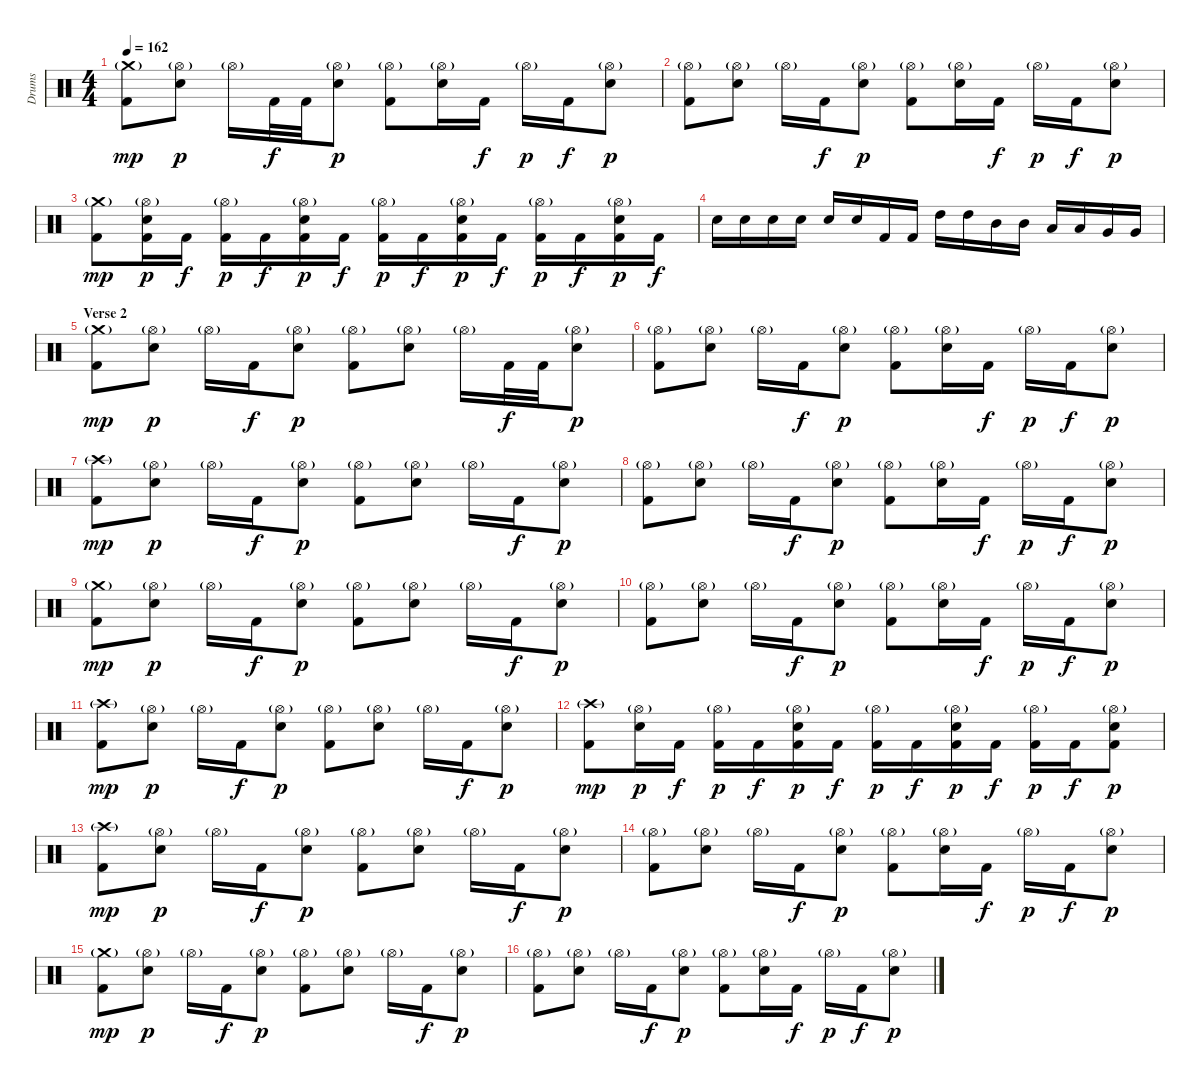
\track ("Drums" "Drums") {instrument percussion}
\staff {score}
\articulation defaults
\ts (4 4)
\tempo 162
\clef neutral
\ks c
("Crash medium (hit)"{g} "Kick (hit) 2").8{dy mp} ("Hi-Hat (open)"{g} "Snare (hit) 2").8{dy p} "Hi-Hat (open)"{g}.16 "Kick (hit) 2".32{dy f} "Kick (hit) 2".32 ("Hi-Hat (open)"{g} "Snare (hit) 2").8{dy p} ("Hi-Hat (open)"{g} "Kick (hit) 2").8 ("Hi-Hat (open)"{g} "Snare (hit) 2").16 "Kick (hit) 2".16{dy f} "Hi-Hat (open)"{g}.16{dy p} "Kick (hit) 2".16{dy f} ("Hi-Hat (open)"{g} "Snare (hit) 2").8{dy p} |
("Hi-Hat (open)"{g} "Kick (hit) 2").8 ("Hi-Hat (open)"{g} "Snare (hit) 2").8 "Hi-Hat (open)"{g}.16 "Kick (hit) 2".16{dy f} ("Hi-Hat (open)"{g} "Snare (hit) 2").8{dy p} ("Hi-Hat (open)"{g} "Kick (hit) 2").8 ("Hi-Hat (open)"{g} "Snare (hit) 2").16 "Kick (hit) 2".16{dy f} "Hi-Hat (open)"{g}.16{dy p} "Kick (hit) 2".16{dy f} ("Hi-Hat (open)"{g} "Snare (hit) 2").8{dy p} |
("Crash medium (hit)"{g} "Kick (hit) 2").8{dy mp} ("Hi-Hat (open)"{g} "Snare (hit) 2" "Kick (hit) 2").16{dy p} "Kick (hit) 2".16{dy f} ("Hi-Hat (open)"{g} "Kick (hit) 2").16{dy p} "Kick (hit) 2".16{dy f} ("Hi-Hat (open)"{g} "Snare (hit) 2" "Kick (hit) 2").16{dy p} "Kick (hit) 2".16{dy f} ("Hi-Hat (open)"{g} "Kick (hit) 2").16{dy p} "Kick (hit) 2".16{dy f} ("Hi-Hat (open)"{g} "Snare (hit) 2" "Kick (hit) 2").16{dy p} "Kick (hit) 2".16{dy f} ("Hi-Hat (open)"{g} "Kick (hit) 2").16{dy p} "Kick (hit) 2".16{dy f} ("Hi-Hat (open)"{g} "Snare (hit) 2" "Kick (hit) 2").16{dy p} "Kick (hit) 2".16{dy f} |
"Snare (hit) 2".16 "Snare (hit) 2".16 "Snare (hit) 2".16 "Snare (hit) 2".16 "Snare (hit) 2".16 "Snare (hit) 2".16 "Kick (hit) 2".16 "Kick (hit) 2".16 "High Tom (hit)".16 "High Tom (hit)".16 "Mid Tom (hit)".16 "Mid Tom (hit)".16 "Low Tom (hit)".16 "Low Tom (hit)".16 "Very Low Tom (hit)".16 "Very Low Tom (hit)".16 |
\section ("" "Verse 2")
("Crash medium (hit)"{g} "Kick (hit) 2").8{dy mp} ("Hi-Hat (open)"{g} "Snare (hit) 2").8{dy p} "Hi-Hat (open)"{g}.16 "Kick (hit) 2".16{dy f} ("Hi-Hat (open)"{g} "Snare (hit) 2").8{dy p} ("Hi-Hat (open)"{g} "Kick (hit) 2").8 ("Hi-Hat (open)"{g} "Snare (hit) 2").8 "Hi-Hat (open)"{g}.16 "Kick (hit) 2".32{dy f} "Kick (hit) 2".32 ("Hi-Hat (open)"{g} "Snare (hit) 2").8{dy p} |
("Hi-Hat (open)"{g} "Kick (hit) 2").8 ("Hi-Hat (open)"{g} "Snare (hit) 2").8 "Hi-Hat (open)"{g}.16 "Kick (hit) 2".16{dy f} ("Hi-Hat (open)"{g} "Snare (hit) 2").8{dy p} ("Hi-Hat (open)"{g} "Kick (hit) 2").8 ("Hi-Hat (open)"{g} "Snare (hit) 2").16 "Kick (hit) 2".16{dy f} "Hi-Hat (open)"{g}.16{dy p} "Kick (hit) 2".16{dy f} ("Hi-Hat (open)"{g} "Snare (hit) 2").8{dy p} |
("Crash high (hit)"{g} "Kick (hit) 2").8{dy mp} ("Hi-Hat (open)"{g} "Snare (hit) 2").8{dy p} "Hi-Hat (open)"{g}.16 "Kick (hit) 2".16{dy f} ("Hi-Hat (open)"{g} "Snare (hit) 2").8{dy p} ("Hi-Hat (open)"{g} "Kick (hit) 2").8 ("Hi-Hat (open)"{g} "Snare (hit) 2").8 "Hi-Hat (open)"{g}.16 "Kick (hit) 2".16{dy f} ("Hi-Hat (open)"{g} "Snare (hit) 2").8{dy p} |
("Hi-Hat (open)"{g} "Kick (hit) 2").8 ("Hi-Hat (open)"{g} "Snare (hit) 2").8 "Hi-Hat (open)"{g}.16 "Kick (hit) 2".16{dy f} ("Hi-Hat (open)"{g} "Snare (hit) 2").8{dy p} ("Hi-Hat (open)"{g} "Kick (hit) 2").8 ("Hi-Hat (open)"{g} "Snare (hit) 2").16 "Kick (hit) 2".16{dy f} "Hi-Hat (open)"{g}.16{dy p} "Kick (hit) 2".16{dy f} ("Hi-Hat (open)"{g} "Snare (hit) 2").8{dy p} |
("Crash medium (hit)"{g} "Kick (hit) 2").8{dy mp} ("Hi-Hat (open)"{g} "Snare (hit) 2").8{dy p} "Hi-Hat (open)"{g}.16 "Kick (hit) 2".16{dy f} ("Hi-Hat (open)"{g} "Snare (hit) 2").8{dy p} ("Hi-Hat (open)"{g} "Kick (hit) 2").8 ("Hi-Hat (open)"{g} "Snare (hit) 2").8 "Hi-Hat (open)"{g}.16 "Kick (hit) 2".16{dy f} ("Hi-Hat (open)"{g} "Snare (hit) 2").8{dy p} |
("Hi-Hat (open)"{g} "Kick (hit) 2").8 ("Hi-Hat (open)"{g} "Snare (hit) 2").8 "Hi-Hat (open)"{g}.16 "Kick (hit) 2".16{dy f} ("Hi-Hat (open)"{g} "Snare (hit) 2").8{dy p} ("Hi-Hat (open)"{g} "Kick (hit) 2").8 ("Hi-Hat (open)"{g} "Snare (hit) 2").16 "Kick (hit) 2".16{dy f} "Hi-Hat (open)"{g}.16{dy p} "Kick (hit) 2".16{dy f} ("Hi-Hat (open)"{g} "Snare (hit) 2").8{dy p} |
("Crash high (hit)"{g} "Kick (hit) 2").8{dy mp} ("Hi-Hat (open)"{g} "Snare (hit) 2").8{dy p} "Hi-Hat (open)"{g}.16 "Kick (hit) 2".16{dy f} ("Hi-Hat (open)"{g} "Snare (hit) 2").8{dy p} ("Hi-Hat (open)"{g} "Kick (hit) 2").8 ("Hi-Hat (open)"{g} "Snare (hit) 2").8 "Hi-Hat (open)"{g}.16 "Kick (hit) 2".16{dy f} ("Hi-Hat (open)"{g} "Snare (hit) 2").8{dy p} |
("Crash high (hit)"{g} "Kick (hit) 2").8{dy mp} ("Hi-Hat (open)"{g} "Snare (hit) 2").16{dy p} "Kick (hit) 2".16{dy f} ("Hi-Hat (open)"{g} "Kick (hit) 2").16{dy p} "Kick (hit) 2".16{dy f} ("Hi-Hat (open)"{g} "Snare (hit) 2" "Kick (hit) 2").16{dy p} "Kick (hit) 2".16{dy f} ("Hi-Hat (open)"{g} "Kick (hit) 2").16{dy p} "Kick (hit) 2".16{dy f} ("Hi-Hat (open)"{g} "Snare (hit) 2" "Kick (hit) 2").16{dy p} "Kick (hit) 2".16{dy f} ("Hi-Hat (open)"{g} "Kick (hit) 2").16{dy p} "Kick (hit) 2".16{dy f} ("Hi-Hat (open)"{g} "Snare (hit) 2" "Kick (hit) 2").8{dy p} |
("Crash high (hit)"{g} "Kick (hit) 2").8{dy mp} ("Hi-Hat (open)"{g} "Snare (hit) 2").8{dy p} "Hi-Hat (open)"{g}.16 "Kick (hit) 2".16{dy f} ("Hi-Hat (open)"{g} "Snare (hit) 2").8{dy p} ("Hi-Hat (open)"{g} "Kick (hit) 2").8 ("Hi-Hat (open)"{g} "Snare (hit) 2").8 "Hi-Hat (open)"{g}.16 "Kick (hit) 2".16{dy f} ("Hi-Hat (open)"{g} "Snare (hit) 2").8{dy p} |
("Hi-Hat (open)"{g} "Kick (hit) 2").8 ("Hi-Hat (open)"{g} "Snare (hit) 2").8 "Hi-Hat (open)"{g}.16 "Kick (hit) 2".16{dy f} ("Hi-Hat (open)"{g} "Snare (hit) 2").8{dy p} ("Hi-Hat (open)"{g} "Kick (hit) 2").8 ("Hi-Hat (open)"{g} "Snare (hit) 2").16 "Kick (hit) 2".16{dy f} "Hi-Hat (open)"{g}.16{dy p} "Kick (hit) 2".16{dy f} ("Hi-Hat (open)"{g} "Snare (hit) 2").8{dy p} |
("Crash medium (hit)"{g} "Kick (hit) 2").8{dy mp} ("Hi-Hat (open)"{g} "Snare (hit) 2").8{dy p} "Hi-Hat (open)"{g}.16 "Kick (hit) 2".16{dy f} ("Hi-Hat (open)"{g} "Snare (hit) 2").8{dy p} ("Hi-Hat (open)"{g} "Kick (hit) 2").8 ("Hi-Hat (open)"{g} "Snare (hit) 2").8 "Hi-Hat (open)"{g}.16 "Kick (hit) 2".16{dy f} ("Hi-Hat (open)"{g} "Snare (hit) 2").8{dy p} |
("Hi-Hat (open)"{g} "Kick (hit) 2").8 ("Hi-Hat (open)"{g} "Snare (hit) 2").8 "Hi-Hat (open)"{g}.16 "Kick (hit) 2".16{dy f} ("Hi-Hat (open)"{g} "Snare (hit) 2").8{dy p} ("Hi-Hat (open)"{g} "Kick (hit) 2").8 ("Hi-Hat (open)"{g} "Snare (hit) 2").16 "Kick (hit) 2".16{dy f} "Hi-Hat (open)"{g}.16{dy p} "Kick (hit) 2".16{dy f} ("Hi-Hat (open)"{g} "Snare (hit) 2").8{dy p}
